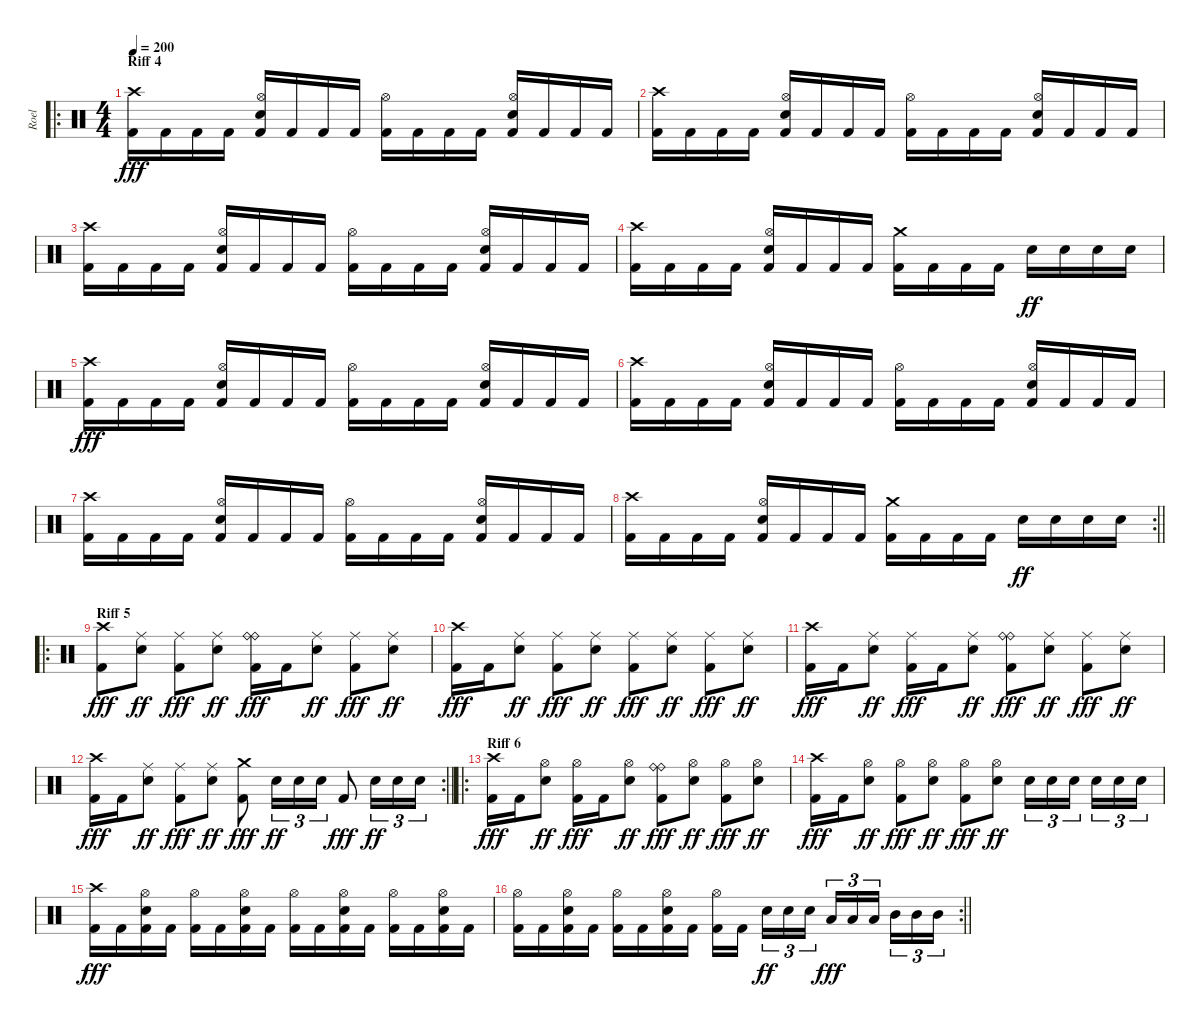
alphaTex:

\track ("Roel" "Roel") {instrument percussion}
\staff {score}
\articulation defaults
\ro
\ts (4 4)
\section ("" "Riff 4")
\tempo 200
\clef neutral
\ks c
("Crash high (hit)" "Kick (hit) 2").16{dy fff} "Kick (hit) 2".16 "Kick (hit) 2".16 "Kick (hit) 2".16 ("Hi-Hat (open)" "Snare (hit) 2" "Kick (hit) 2").16 "Kick (hit) 2".16 "Kick (hit) 2".16 "Kick (hit) 2".16 ("Hi-Hat (open)" "Kick (hit) 2").16 "Kick (hit) 2".16 "Kick (hit) 2".16 "Kick (hit) 2".16 ("Hi-Hat (open)" "Snare (hit) 2" "Kick (hit) 2").16 "Kick (hit) 2".16 "Kick (hit) 2".16 "Kick (hit) 2".16 |
("Crash high (hit)" "Kick (hit) 2").16 "Kick (hit) 2".16 "Kick (hit) 2".16 "Kick (hit) 2".16 ("Hi-Hat (open)" "Snare (hit) 2" "Kick (hit) 2").16 "Kick (hit) 2".16 "Kick (hit) 2".16 "Kick (hit) 2".16 ("Hi-Hat (open)" "Kick (hit) 2").16 "Kick (hit) 2".16 "Kick (hit) 2".16 "Kick (hit) 2".16 ("Hi-Hat (open)" "Snare (hit) 2" "Kick (hit) 2").16 "Kick (hit) 2".16 "Kick (hit) 2".16 "Kick (hit) 2".16 |
("Crash high (hit)" "Kick (hit) 2").16 "Kick (hit) 2".16 "Kick (hit) 2".16 "Kick (hit) 2".16 ("Hi-Hat (open)" "Snare (hit) 2" "Kick (hit) 2").16 "Kick (hit) 2".16 "Kick (hit) 2".16 "Kick (hit) 2".16 ("Hi-Hat (open)" "Kick (hit) 2").16 "Kick (hit) 2".16 "Kick (hit) 2".16 "Kick (hit) 2".16 ("Hi-Hat (open)" "Snare (hit) 2" "Kick (hit) 2").16 "Kick (hit) 2".16 "Kick (hit) 2".16 "Kick (hit) 2".16 |
("Crash high (hit)" "Kick (hit) 2").16 "Kick (hit) 2".16 "Kick (hit) 2".16 "Kick (hit) 2".16 ("Hi-Hat (open)" "Snare (hit) 2" "Kick (hit) 2").16 "Kick (hit) 2".16 "Kick (hit) 2".16 "Kick (hit) 2".16 ("Crash medium (hit)" "Kick (hit) 2").16 "Kick (hit) 2".16 "Kick (hit) 2".16 "Kick (hit) 2".16 "Snare (hit) 2".16{dy ff} "Snare (hit) 2".16 "Snare (hit) 2".16 "Snare (hit) 2".16 |
("Crash high (hit)" "Kick (hit) 2").16{dy fff} "Kick (hit) 2".16 "Kick (hit) 2".16 "Kick (hit) 2".16 ("Hi-Hat (open)" "Snare (hit) 2" "Kick (hit) 2").16 "Kick (hit) 2".16 "Kick (hit) 2".16 "Kick (hit) 2".16 ("Hi-Hat (open)" "Kick (hit) 2").16 "Kick (hit) 2".16 "Kick (hit) 2".16 "Kick (hit) 2".16 ("Hi-Hat (open)" "Snare (hit) 2" "Kick (hit) 2").16 "Kick (hit) 2".16 "Kick (hit) 2".16 "Kick (hit) 2".16 |
("Crash high (hit)" "Kick (hit) 2").16 "Kick (hit) 2".16 "Kick (hit) 2".16 "Kick (hit) 2".16 ("Hi-Hat (open)" "Snare (hit) 2" "Kick (hit) 2").16 "Kick (hit) 2".16 "Kick (hit) 2".16 "Kick (hit) 2".16 ("Hi-Hat (open)" "Kick (hit) 2").16 "Kick (hit) 2".16 "Kick (hit) 2".16 "Kick (hit) 2".16 ("Hi-Hat (open)" "Snare (hit) 2" "Kick (hit) 2").16 "Kick (hit) 2".16 "Kick (hit) 2".16 "Kick (hit) 2".16 |
("Crash high (hit)" "Kick (hit) 2").16 "Kick (hit) 2".16 "Kick (hit) 2".16 "Kick (hit) 2".16 ("Hi-Hat (open)" "Snare (hit) 2" "Kick (hit) 2").16 "Kick (hit) 2".16 "Kick (hit) 2".16 "Kick (hit) 2".16 ("Hi-Hat (open)" "Kick (hit) 2").16 "Kick (hit) 2".16 "Kick (hit) 2".16 "Kick (hit) 2".16 ("Hi-Hat (open)" "Snare (hit) 2" "Kick (hit) 2").16 "Kick (hit) 2".16 "Kick (hit) 2".16 "Kick (hit) 2".16 |
\rc 2
\barLineRight lightlight
("Crash high (hit)" "Kick (hit) 2").16 "Kick (hit) 2".16 "Kick (hit) 2".16 "Kick (hit) 2".16 ("Hi-Hat (open)" "Snare (hit) 2" "Kick (hit) 2").16 "Kick (hit) 2".16 "Kick (hit) 2".16 "Kick (hit) 2".16 ("Crash medium (hit)" "Kick (hit) 2").16 "Kick (hit) 2".16 "Kick (hit) 2".16 "Kick (hit) 2".16 "Snare (hit) 2".16{dy ff} "Snare (hit) 2".16 "Snare (hit) 2".16 "Snare (hit) 2".16 |
\ro
\section ("" "Riff 5")
("Crash high (hit)" "Kick (hit) 2").8{dy fff} ("Ride (middle)" "Snare (hit) 2").8{dy ff} ("Ride (middle)" "Kick (hit) 2").8{dy fff} ("Ride (middle)" "Snare (hit) 2").8{dy ff} ("Ride (bell)" "Ride (bell)" "Kick (hit) 2").16{dy fff} "Kick (hit) 2".16 ("Ride (middle)" "Snare (hit) 2").8{dy ff} ("Ride (middle)" "Kick (hit) 2").8{dy fff} ("Ride (middle)" "Snare (hit) 2").8{dy ff} |
("Crash high (hit)" "Kick (hit) 2").16{dy fff} "Kick (hit) 2".16 ("Ride (middle)" "Snare (hit) 2").8{dy ff} ("Ride (middle)" "Kick (hit) 2").8{dy fff} ("Ride (middle)" "Snare (hit) 2").8{dy ff} ("Ride (middle)" "Kick (hit) 2").8{dy fff} ("Ride (middle)" "Snare (hit) 2").8{dy ff} ("Ride (middle)" "Kick (hit) 2").8{dy fff} ("Ride (middle)" "Snare (hit) 2").8{dy ff} |
("Crash high (hit)" "Kick (hit) 2").16{dy fff} "Kick (hit) 2".16 ("Ride (middle)" "Snare (hit) 2").8{dy ff} ("Ride (middle)" "Kick (hit) 2").16{dy fff} "Kick (hit) 2".16 ("Ride (middle)" "Snare (hit) 2").8{dy ff} ("Ride (bell)" "Ride (bell)" "Kick (hit) 2").8{dy fff} ("Ride (middle)" "Snare (hit) 2").8{dy ff} ("Ride (middle)" "Kick (hit) 2").8{dy fff} ("Ride (middle)" "Snare (hit) 2").8{dy ff} |
\rc 2
\barLineRight lightlight
("Crash high (hit)" "Kick (hit) 2").16{dy fff} "Kick (hit) 2".16 ("Ride (middle)" "Snare (hit) 2").8{dy ff} ("Ride (middle)" "Kick (hit) 2").8{dy fff} ("Ride (middle)" "Snare (hit) 2").8{dy ff} ("Crash medium (hit)" "Kick (hit) 2").8{dy fff} "Snare (hit) 2".16{tu (3 2) dy ff} "Snare (hit) 2".16{tu (3 2)} "Snare (hit) 2".16{tu (3 2)} "Kick (hit) 2".8{dy fff} "Snare (hit) 2".16{tu (3 2) dy ff} "Snare (hit) 2".16{tu (3 2)} "Snare (hit) 2".16{tu (3 2)} |
\ro
\section ("" "Riff 6")
("Crash high (hit)" "Kick (hit) 2").16{dy fff} "Kick (hit) 2".16 ("Hi-Hat (open)" "Snare (hit) 2").8{dy ff} ("Hi-Hat (open)" "Kick (hit) 2").16{dy fff} "Kick (hit) 2".16 ("Hi-Hat (open)" "Snare (hit) 2").8{dy ff} ("Ride (bell)" "Ride (bell)" "Kick (hit) 2").8{dy fff} ("Hi-Hat (open)" "Snare (hit) 2").8{dy ff} ("Hi-Hat (open)" "Kick (hit) 2").8{dy fff} ("Hi-Hat (open)" "Snare (hit) 2").8{dy ff} |
("Crash high (hit)" "Kick (hit) 2").16{dy fff} "Kick (hit) 2".16 ("Hi-Hat (open)" "Snare (hit) 2").8{dy ff} ("Hi-Hat (open)" "Kick (hit) 2").8{dy fff} ("Hi-Hat (open)" "Snare (hit) 2").8{dy ff} ("Hi-Hat (open)" "Kick (hit) 2").8{dy fff} ("Hi-Hat (open)" "Snare (hit) 2").8{dy ff} "Snare (hit) 2".16{tu (3 2)} "Snare (hit) 2".16{tu (3 2)} "Snare (hit) 2".16{tu (3 2) beam splitsecondary} "Snare (hit) 2".16{tu (3 2)} "Snare (hit) 2".16{tu (3 2)} "Snare (hit) 2".16{tu (3 2)} |
("Crash high (hit)" "Kick (hit) 2").16{dy fff} "Kick (hit) 2".16 ("Hi-Hat (open)" "Snare (hit) 2" "Kick (hit) 2").16 "Kick (hit) 2".16 ("Hi-Hat (open)" "Kick (hit) 2").16 "Kick (hit) 2".16 ("Hi-Hat (open)" "Snare (hit) 2" "Kick (hit) 2").16 "Kick (hit) 2".16 ("Hi-Hat (open)" "Kick (hit) 2").16 "Kick (hit) 2".16 ("Hi-Hat (open)" "Snare (hit) 2" "Kick (hit) 2").16 "Kick (hit) 2".16 ("Hi-Hat (open)" "Kick (hit) 2").16 "Kick (hit) 2".16 ("Hi-Hat (open)" "Snare (hit) 2" "Kick (hit) 2").16 "Kick (hit) 2".16 |
\rc 2
\barLineRight lightlight
("Hi-Hat (open)" "Kick (hit) 2").16 "Kick (hit) 2".16 ("Hi-Hat (open)" "Snare (hit) 2" "Kick (hit) 2").16 "Kick (hit) 2".16 ("Hi-Hat (open)" "Kick (hit) 2").16 "Kick (hit) 2".16 ("Hi-Hat (open)" "Snare (hit) 2" "Kick (hit) 2").16 "Kick (hit) 2".16 ("Hi-Hat (open)" "Kick (hit) 2").16 "Kick (hit) 2".16{beam splitsecondary} "Snare (hit) 2".16{tu (3 2) dy ff} "Snare (hit) 2".16{tu (3 2)} "Snare (hit) 2".16{tu (3 2)} "Low Tom (hit)".16{tu (3 2) dy fff} "Low Tom (hit)".16{tu (3 2)} "Low Tom (hit)".16{tu (3 2) beam splitsecondary} "Mid Tom (hit)".16{tu (3 2)} "Mid Tom (hit)".16{tu (3 2)} "Mid Tom (hit)".16{tu (3 2)}
